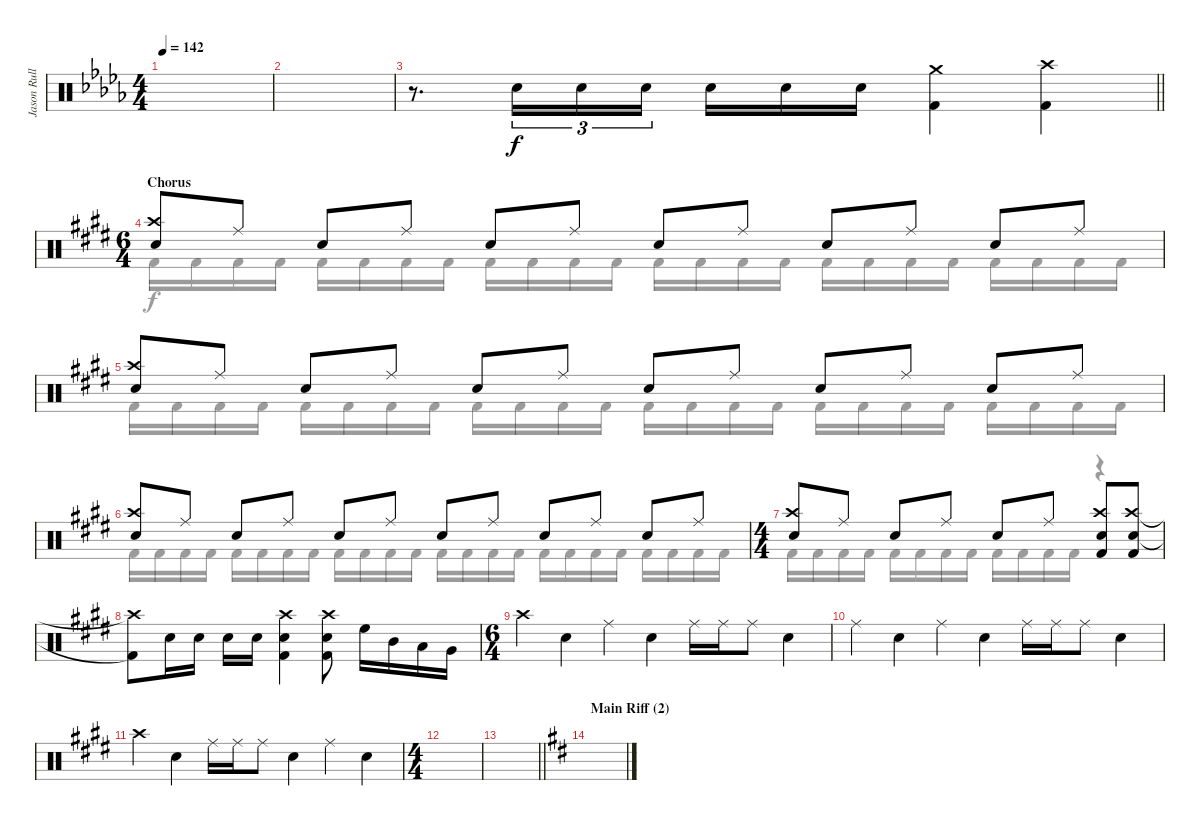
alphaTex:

\track ("Jason Rullo (drums)" "Jason Rull") {instrument percussion}
\staff {score}
\articulation defaults
\voice
\ts (4 4)
\tempo 142
\clef neutral
\ks bbminor
|
|
\barLineRight lightlight
r.8{d} "Electric Snare (hit)".16{tu (3 2)} "Electric Snare (hit)".16{tu (3 2)} "Electric Snare (hit)".16{tu (3 2) beam splitsecondary} "Electric Snare (hit)".16 "Electric Snare (hit)".16 "Electric Snare (hit)".16 ("Crash medium (hit)" "Kick (hit) 2").4 ("Crash high (hit)" "Kick (hit) 2").4 |
\ts (6 4)
\section ("" "Chorus")
\ks c#minor
("Crash high (hit)" "Electric Snare (hit)").8 "Ride (middle)".8 "Electric Snare (hit)".8 "Ride (middle)".8 "Electric Snare (hit)".8 "Ride (middle)".8 "Electric Snare (hit)".8 "Ride (middle)".8 "Electric Snare (hit)".8 "Ride (middle)".8 "Electric Snare (hit)".8 "Ride (middle)".8 |
("Crash high (hit)" "Electric Snare (hit)").8 "Ride (middle)".8 "Electric Snare (hit)".8 "Ride (middle)".8 "Electric Snare (hit)".8 "Ride (middle)".8 "Electric Snare (hit)".8 "Ride (middle)".8 "Electric Snare (hit)".8 "Ride (middle)".8 "Electric Snare (hit)".8 "Ride (middle)".8 |
("Crash high (hit)" "Electric Snare (hit)").8 "Ride (middle)".8 "Electric Snare (hit)".8 "Ride (middle)".8 "Electric Snare (hit)".8 "Ride (middle)".8 "Electric Snare (hit)".8 "Ride (middle)".8 "Electric Snare (hit)".8 "Ride (middle)".8 "Electric Snare (hit)".8 "Ride (middle)".8 |
\ts (4 4)
("Crash high (hit)" "Electric Snare (hit)").8 "Ride (middle)".8 "Electric Snare (hit)".8 "Ride (middle)".8 "Electric Snare (hit)".8 "Ride (middle)".8 ("Crash high (hit)" "Electric Snare (hit)" "Kick (hit) 2").8 ("Crash high (hit)" "Electric Snare (hit)" "Kick (hit) 2").8 |
("Crash high (hit)"{t} "Kick (hit) 2"{t}).8 "Electric Snare (hit)".16 "Electric Snare (hit)".16 "Electric Snare (hit)".16 "Electric Snare (hit)".16 ("Crash high (hit)" "Electric Snare (hit)" "Kick (hit) 2").4 ("Crash high (hit)" "Electric Snare (hit)" "Kick (hit) 2").8 "High Floor Tom (hit)".16 "Mid Tom (hit)".16 "Low Tom (hit)".16 "Very Low Tom (hit)".16 |
\ts (6 4)
"Crash high (hit)".4 "Electric Snare (hit)".4 "Ride (middle)".4 "Electric Snare (hit)".4 "Ride (middle)".16 "Ride (middle)".16 "Ride (middle)".8 "Electric Snare (hit)".4 |
"Ride (middle)".4 "Electric Snare (hit)".4 "Ride (middle)".4 "Electric Snare (hit)".4 "Ride (middle)".16 "Ride (middle)".16 "Ride (middle)".8 "Electric Snare (hit)".4 |
"Crash high (hit)".4 "Electric Snare (hit)".4 "Ride (middle)".16 "Ride (middle)".16 "Ride (middle)".8 "Electric Snare (hit)".4 "Ride (middle)".4 "Electric Snare (hit)".4 |
\ts (4 4)
|
\barLineRight lightlight
|
\section ("" "Main Riff (2)")
\ks bminor
|
|
\voice
\clef neutral
\ottava regular
\simile none
\ks bbminor
|
|
\barLineRight lightlight
|
\ks c#minor "Kick (hit) 2".16 "Kick (hit) 2".16 "Kick (hit) 2".16 "Kick (hit) 2".16 "Kick (hit) 2".16 "Kick (hit) 2".16 "Kick (hit) 2".16 "Kick (hit) 2".16 "Kick (hit) 2".16 "Kick (hit) 2".16 "Kick (hit) 2".16 "Kick (hit) 2".16 "Kick (hit) 2".16 "Kick (hit) 2".16 "Kick (hit) 2".16 "Kick (hit) 2".16 "Kick (hit) 2".16 "Kick (hit) 2".16 "Kick (hit) 2".16 "Kick (hit) 2".16 "Kick (hit) 2".16 "Kick (hit) 2".16 "Kick (hit) 2".16 "Kick (hit) 2".16
|
"Kick (hit) 2".16 "Kick (hit) 2".16 "Kick (hit) 2".16 "Kick (hit) 2".16 "Kick (hit) 2".16 "Kick (hit) 2".16 "Kick (hit) 2".16 "Kick (hit) 2".16 "Kick (hit) 2".16 "Kick (hit) 2".16 "Kick (hit) 2".16 "Kick (hit) 2".16 "Kick (hit) 2".16 "Kick (hit) 2".16 "Kick (hit) 2".16 "Kick (hit) 2".16 "Kick (hit) 2".16 "Kick (hit) 2".16 "Kick (hit) 2".16 "Kick (hit) 2".16 "Kick (hit) 2".16 "Kick (hit) 2".16 "Kick (hit) 2".16 "Kick (hit) 2".16 |
"Kick (hit) 2".16 "Kick (hit) 2".16 "Kick (hit) 2".16 "Kick (hit) 2".16 "Kick (hit) 2".16 "Kick (hit) 2".16 "Kick (hit) 2".16 "Kick (hit) 2".16 "Kick (hit) 2".16 "Kick (hit) 2".16 "Kick (hit) 2".16 "Kick (hit) 2".16 "Kick (hit) 2".16 "Kick (hit) 2".16 "Kick (hit) 2".16 "Kick (hit) 2".16 "Kick (hit) 2".16 "Kick (hit) 2".16 "Kick (hit) 2".16 "Kick (hit) 2".16 "Kick (hit) 2".16 "Kick (hit) 2".16 "Kick (hit) 2".16 "Kick (hit) 2".16 |
"Kick (hit) 2".16 "Kick (hit) 2".16 "Kick (hit) 2".16 "Kick (hit) 2".16 "Kick (hit) 2".16 "Kick (hit) 2".16 "Kick (hit) 2".16 "Kick (hit) 2".16 "Kick (hit) 2".16 "Kick (hit) 2".16 "Kick (hit) 2".16 "Kick (hit) 2".16 r.4 |
|
|
|
|
|
\barLineRight lightlight
|
\ks bminor
|
|
